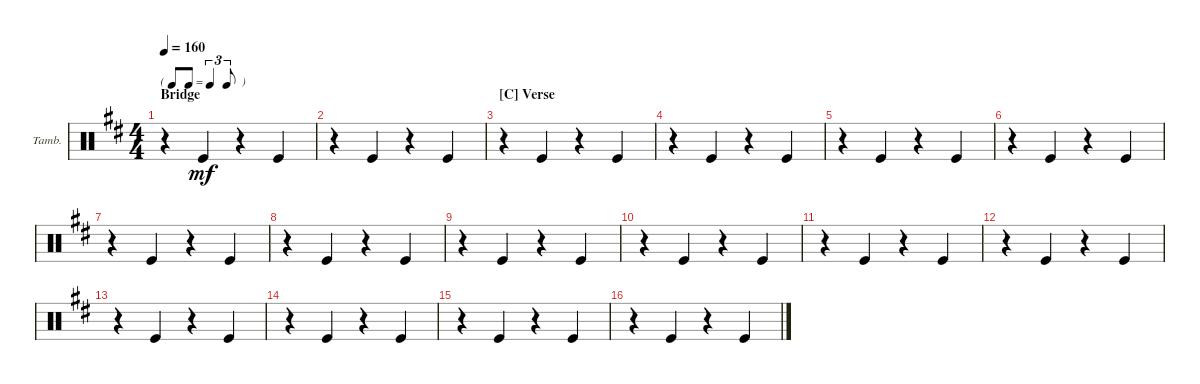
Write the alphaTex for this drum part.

\defaultSystemsLayout 4
\bracketExtendMode groupsimilarinstruments
\firstSystemTrackNameOrientation horizontal
\otherSystemsTrackNameOrientation horizontal
\track ("Tambourine" "Tamb.") {instrument percussion}
\staff {score}
\articulation defaults
\ts (4 4)
\tf triplet8th
\section ("" "Bridge")
\tempo 160
\clef neutral
\ks bminor
r.4{dy mf} "Kick (hit)".4 r.4 "Kick (hit)".4 |
r.4 "Kick (hit)".4 r.4 "Kick (hit)".4 |
\section ("C" "Verse")
r.4 "Kick (hit)".4 r.4 "Kick (hit)".4 |
r.4 "Kick (hit)".4 r.4 "Kick (hit)".4 |
r.4 "Kick (hit)".4 r.4 "Kick (hit)".4 |
r.4 "Kick (hit)".4 r.4 "Kick (hit)".4 |
r.4 "Kick (hit)".4 r.4 "Kick (hit)".4 |
r.4 "Kick (hit)".4 r.4 "Kick (hit)".4 |
r.4 "Kick (hit)".4 r.4 "Kick (hit)".4 |
r.4 "Kick (hit)".4 r.4 "Kick (hit)".4 |
r.4 "Kick (hit)".4 r.4 "Kick (hit)".4 |
r.4 "Kick (hit)".4 r.4 "Kick (hit)".4 |
r.4 "Kick (hit)".4 r.4 "Kick (hit)".4 |
r.4 "Kick (hit)".4 r.4 "Kick (hit)".4 |
r.4 "Kick (hit)".4 r.4 "Kick (hit)".4 |
r.4 "Kick (hit)".4 r.4 "Kick (hit)".4
